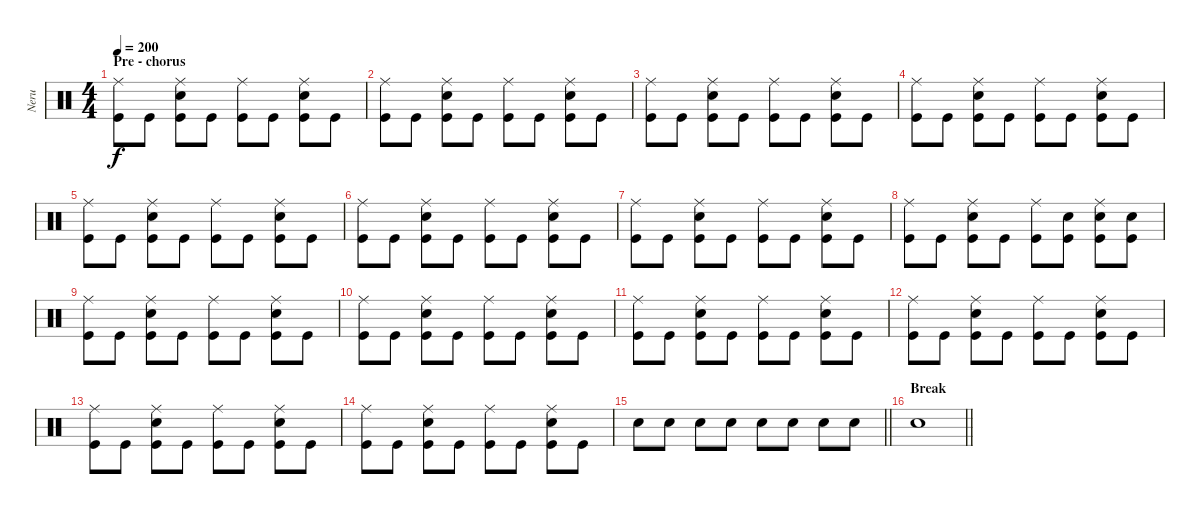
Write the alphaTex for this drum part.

\track ("Neru" "Neru") {instrument percussion}
\staff {score}
\articulation defaults
\ts (4 4)
\section ("" "Pre - chorus")
\tempo 200
\clef neutral
\ks c
("Ride (middle)" "Kick (hit)").8{dy f} "Kick (hit)".8 ("Ride (middle)" "Electric Snare (hit)" "Kick (hit)").8 "Kick (hit)".8 ("Ride (middle)" "Kick (hit)").8 "Kick (hit)".8 ("Ride (middle)" "Electric Snare (hit)" "Kick (hit)").8 "Kick (hit)".8 |
("Ride (middle)" "Kick (hit)").8 "Kick (hit)".8 ("Ride (middle)" "Electric Snare (hit)" "Kick (hit)").8 "Kick (hit)".8 ("Ride (middle)" "Kick (hit)").8 "Kick (hit)".8 ("Ride (middle)" "Electric Snare (hit)" "Kick (hit)").8 "Kick (hit)".8 |
("Ride (middle)" "Kick (hit)").8 "Kick (hit)".8 ("Ride (middle)" "Electric Snare (hit)" "Kick (hit)").8 "Kick (hit)".8 ("Ride (middle)" "Kick (hit)").8 "Kick (hit)".8 ("Ride (middle)" "Electric Snare (hit)" "Kick (hit)").8 "Kick (hit)".8 |
("Ride (middle)" "Kick (hit)").8 "Kick (hit)".8 ("Ride (middle)" "Electric Snare (hit)" "Kick (hit)").8 "Kick (hit)".8 ("Ride (middle)" "Kick (hit)").8 "Kick (hit)".8 ("Ride (middle)" "Electric Snare (hit)" "Kick (hit)").8 "Kick (hit)".8 |
("Ride (middle)" "Kick (hit)").8 "Kick (hit)".8 ("Ride (middle)" "Electric Snare (hit)" "Kick (hit)").8 "Kick (hit)".8 ("Ride (middle)" "Kick (hit)").8 "Kick (hit)".8 ("Ride (middle)" "Electric Snare (hit)" "Kick (hit)").8 "Kick (hit)".8 |
("Ride (middle)" "Kick (hit)").8 "Kick (hit)".8 ("Ride (middle)" "Electric Snare (hit)" "Kick (hit)").8 "Kick (hit)".8 ("Ride (middle)" "Kick (hit)").8 "Kick (hit)".8 ("Ride (middle)" "Electric Snare (hit)" "Kick (hit)").8 "Kick (hit)".8 |
("Ride (middle)" "Kick (hit)").8 "Kick (hit)".8 ("Ride (middle)" "Electric Snare (hit)" "Kick (hit)").8 "Kick (hit)".8 ("Ride (middle)" "Kick (hit)").8 "Kick (hit)".8 ("Ride (middle)" "Electric Snare (hit)" "Kick (hit)").8 "Kick (hit)".8 |
("Ride (middle)" "Kick (hit)").8 "Kick (hit)".8 ("Ride (middle)" "Electric Snare (hit)" "Kick (hit)").8 "Kick (hit)".8 ("Ride (middle)" "Kick (hit)").8 ("Electric Snare (hit)" "Kick (hit)").8 ("Ride (middle)" "Electric Snare (hit)" "Kick (hit)").8 ("Electric Snare (hit)" "Kick (hit)").8 |
("Ride (middle)" "Kick (hit)").8 "Kick (hit)".8 ("Ride (middle)" "Electric Snare (hit)" "Kick (hit)").8 "Kick (hit)".8 ("Ride (middle)" "Kick (hit)").8 "Kick (hit)".8 ("Ride (middle)" "Electric Snare (hit)" "Kick (hit)").8 "Kick (hit)".8 |
("Ride (middle)" "Kick (hit)").8 "Kick (hit)".8 ("Ride (middle)" "Electric Snare (hit)" "Kick (hit)").8 "Kick (hit)".8 ("Ride (middle)" "Kick (hit)").8 "Kick (hit)".8 ("Ride (middle)" "Electric Snare (hit)" "Kick (hit)").8 "Kick (hit)".8 |
("Ride (middle)" "Kick (hit)").8 "Kick (hit)".8 ("Ride (middle)" "Electric Snare (hit)" "Kick (hit)").8 "Kick (hit)".8 ("Ride (middle)" "Kick (hit)").8 "Kick (hit)".8 ("Ride (middle)" "Electric Snare (hit)" "Kick (hit)").8 "Kick (hit)".8 |
("Ride (middle)" "Kick (hit)").8 "Kick (hit)".8 ("Ride (middle)" "Electric Snare (hit)" "Kick (hit)").8 "Kick (hit)".8 ("Ride (middle)" "Kick (hit)").8 "Kick (hit)".8 ("Ride (middle)" "Electric Snare (hit)" "Kick (hit)").8 "Kick (hit)".8 |
("Ride (middle)" "Kick (hit)").8 "Kick (hit)".8 ("Ride (middle)" "Electric Snare (hit)" "Kick (hit)").8 "Kick (hit)".8 ("Ride (middle)" "Kick (hit)").8 "Kick (hit)".8 ("Ride (middle)" "Electric Snare (hit)" "Kick (hit)").8 "Kick (hit)".8 |
("Ride (middle)" "Kick (hit)").8 "Kick (hit)".8 ("Ride (middle)" "Electric Snare (hit)" "Kick (hit)").8 "Kick (hit)".8 ("Ride (middle)" "Kick (hit)").8 "Kick (hit)".8 ("Ride (middle)" "Electric Snare (hit)" "Kick (hit)").8 "Kick (hit)".8 |
\barLineRight lightlight "Electric Snare (hit)".8 "Electric Snare (hit)".8 "Electric Snare (hit)".8 "Electric Snare (hit)".8 "Electric Snare (hit)".8 "Electric Snare (hit)".8 "Electric Snare (hit)".8 "Electric Snare (hit)".8
|
\section ("" "Break")
\barLineRight lightlight "Electric Snare (hit)".1
